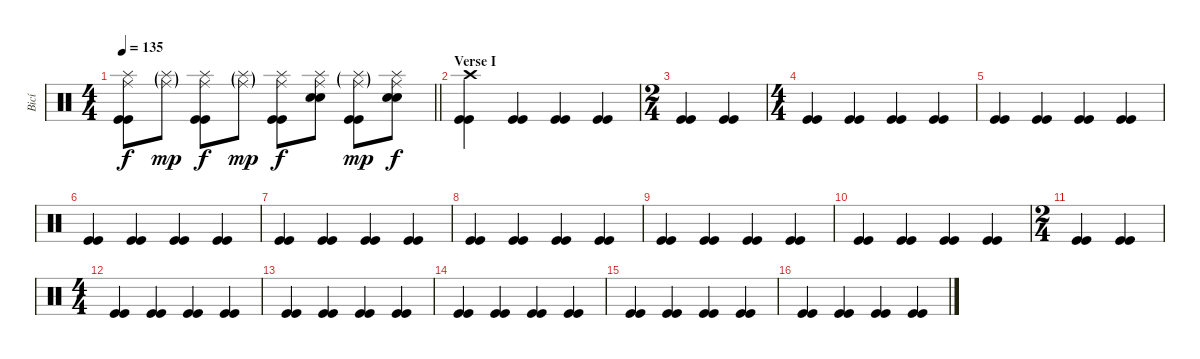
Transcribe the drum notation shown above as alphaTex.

\track ("Bicí" "Bicí") {instrument percussion}
\staff {score}
\articulation defaults
\ts (4 4)
\tempo 135
\clef neutral
\barLineRight lightlight
\ks c
("Splash (hit)" "Ride (middle)" "Kick (hit)" "Kick (hit)").8{dy f} ("Splash (hit)"{g} "Ride (middle)"{g}).8{dy mp} ("Splash (hit)" "Ride (middle)" "Kick (hit)" "Kick (hit)").8{dy f} ("Splash (hit)"{g} "Ride (middle)"{g}).8{dy mp} ("Splash (hit)" "Ride (middle)" "Kick (hit)" "Kick (hit)").8{dy f} ("Splash (hit)" "Ride (middle)" "Electric Snare (hit)" "Electric Snare (hit)").8 ("Splash (hit)"{g} "Ride (middle)"{g} "Kick (hit)" "Kick (hit)").8{dy mp} ("Splash (hit)" "Ride (middle)" "Electric Snare (hit)" "Electric Snare (hit)").8{dy f} |
\section ("" "Verse I")
("Crash high (hit)" "Kick (hit)" "Kick (hit)").4 ("Kick (hit)" "Kick (hit)").4 ("Kick (hit)" "Kick (hit)").4 ("Kick (hit)" "Kick (hit)").4 |
\ts (2 4)
("Kick (hit)" "Kick (hit)").4 ("Kick (hit)" "Kick (hit)").4 |
\ts (4 4)
("Kick (hit)" "Kick (hit)").4 ("Kick (hit)" "Kick (hit)").4 ("Kick (hit)" "Kick (hit)").4 ("Kick (hit)" "Kick (hit)").4 |
("Kick (hit)" "Kick (hit)").4 ("Kick (hit)" "Kick (hit)").4 ("Kick (hit)" "Kick (hit)").4 ("Kick (hit)" "Kick (hit)").4 |
("Kick (hit)" "Kick (hit)").4 ("Kick (hit)" "Kick (hit)").4 ("Kick (hit)" "Kick (hit)").4 ("Kick (hit)" "Kick (hit)").4 |
("Kick (hit)" "Kick (hit)").4 ("Kick (hit)" "Kick (hit)").4 ("Kick (hit)" "Kick (hit)").4 ("Kick (hit)" "Kick (hit)").4 |
("Kick (hit)" "Kick (hit)").4 ("Kick (hit)" "Kick (hit)").4 ("Kick (hit)" "Kick (hit)").4 ("Kick (hit)" "Kick (hit)").4 |
("Kick (hit)" "Kick (hit)").4 ("Kick (hit)" "Kick (hit)").4 ("Kick (hit)" "Kick (hit)").4 ("Kick (hit)" "Kick (hit)").4 |
("Kick (hit)" "Kick (hit)").4 ("Kick (hit)" "Kick (hit)").4 ("Kick (hit)" "Kick (hit)").4 ("Kick (hit)" "Kick (hit)").4 |
\ts (2 4)
("Kick (hit)" "Kick (hit)").4 ("Kick (hit)" "Kick (hit)").4 |
\ts (4 4)
("Kick (hit)" "Kick (hit)").4 ("Kick (hit)" "Kick (hit)").4 ("Kick (hit)" "Kick (hit)").4 ("Kick (hit)" "Kick (hit)").4 |
("Kick (hit)" "Kick (hit)").4 ("Kick (hit)" "Kick (hit)").4 ("Kick (hit)" "Kick (hit)").4 ("Kick (hit)" "Kick (hit)").4 |
("Kick (hit)" "Kick (hit)").4 ("Kick (hit)" "Kick (hit)").4 ("Kick (hit)" "Kick (hit)").4 ("Kick (hit)" "Kick (hit)").4 |
("Kick (hit)" "Kick (hit)").4 ("Kick (hit)" "Kick (hit)").4 ("Kick (hit)" "Kick (hit)").4 ("Kick (hit)" "Kick (hit)").4 |
("Kick (hit)" "Kick (hit)").4 ("Kick (hit)" "Kick (hit)").4 ("Kick (hit)" "Kick (hit)").4 ("Kick (hit)" "Kick (hit)").4
